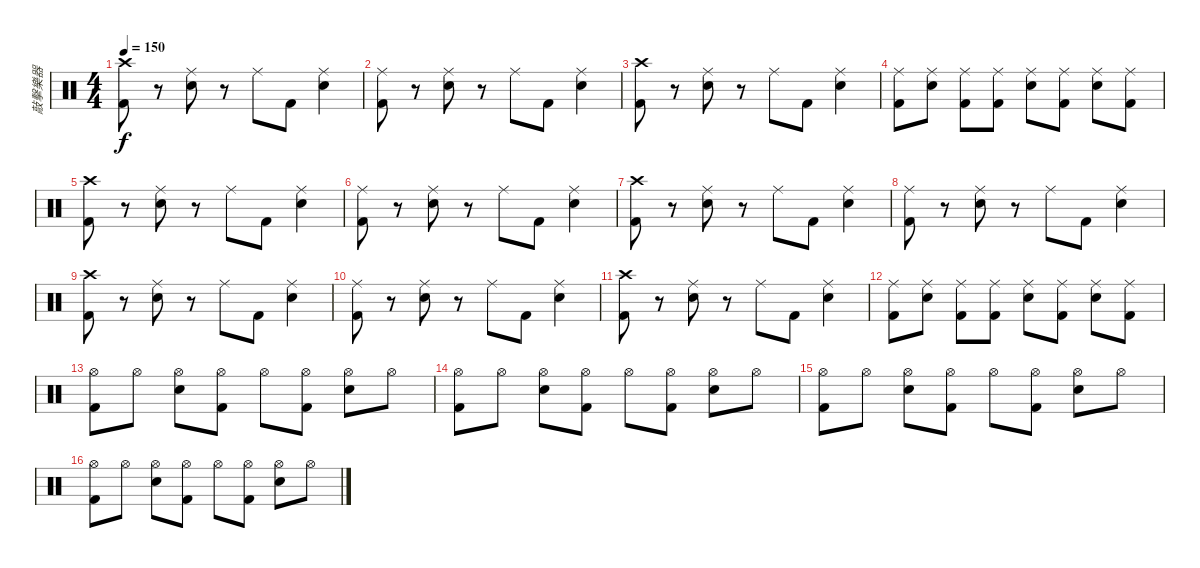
\track ("敲擊樂器" "敲擊樂器") {instrument percussion}
\staff {score}
\articulation defaults
\ts (4 4)
\tempo 150
\clef neutral
\ks c
("Crash high (hit)" "Kick (hit) 2").8{dy f} r.8 ("Ride (middle)" "Electric Snare (hit)").8 r.8 "Ride (middle)".8 "Kick (hit) 2".8 ("Ride (middle)" "Electric Snare (hit)").4 |
("Ride (middle)" "Kick (hit) 2").8 r.8 ("Ride (middle)" "Electric Snare (hit)").8 r.8 "Ride (middle)".8 "Kick (hit) 2".8 ("Ride (middle)" "Electric Snare (hit)").4 |
("Crash high (hit)" "Kick (hit) 2").8 r.8 ("Ride (middle)" "Electric Snare (hit)").8 r.8 "Ride (middle)".8 "Kick (hit) 2".8 ("Ride (middle)" "Electric Snare (hit)").4 |
("Ride (middle)" "Kick (hit) 2").8 ("Ride (middle)" "Electric Snare (hit)").8 ("Ride (middle)" "Kick (hit) 2").8 ("Ride (middle)" "Kick (hit) 2").8 ("Ride (middle)" "Electric Snare (hit)").8 ("Ride (middle)" "Kick (hit) 2").8 ("Ride (middle)" "Electric Snare (hit)").8 ("Ride (middle)" "Kick (hit) 2").8 |
("Crash high (hit)" "Kick (hit) 2").8 r.8 ("Ride (middle)" "Electric Snare (hit)").8 r.8 "Ride (middle)".8 "Kick (hit) 2".8 ("Ride (middle)" "Electric Snare (hit)").4 |
("Ride (middle)" "Kick (hit) 2").8 r.8 ("Ride (middle)" "Electric Snare (hit)").8 r.8 "Ride (middle)".8 "Kick (hit) 2".8 ("Ride (middle)" "Electric Snare (hit)").4 |
("Crash high (hit)" "Kick (hit) 2").8 r.8 ("Ride (middle)" "Electric Snare (hit)").8 r.8 "Ride (middle)".8 "Kick (hit) 2".8 ("Ride (middle)" "Electric Snare (hit)").4 |
("Ride (middle)" "Kick (hit) 2").8 r.8 ("Ride (middle)" "Electric Snare (hit)").8 r.8 "Ride (middle)".8 "Kick (hit) 2".8 ("Ride (middle)" "Electric Snare (hit)").4 |
("Crash high (hit)" "Kick (hit) 2").8 r.8 ("Ride (middle)" "Electric Snare (hit)").8 r.8 "Ride (middle)".8 "Kick (hit) 2".8 ("Ride (middle)" "Electric Snare (hit)").4 |
("Ride (middle)" "Kick (hit) 2").8 r.8 ("Ride (middle)" "Electric Snare (hit)").8 r.8 "Ride (middle)".8 "Kick (hit) 2".8 ("Ride (middle)" "Electric Snare (hit)").4 |
("Crash high (hit)" "Kick (hit) 2").8 r.8 ("Ride (middle)" "Electric Snare (hit)").8 r.8 "Ride (middle)".8 "Kick (hit) 2".8 ("Ride (middle)" "Electric Snare (hit)").4 |
("Ride (middle)" "Kick (hit) 2").8 ("Ride (middle)" "Electric Snare (hit)").8 ("Ride (middle)" "Kick (hit) 2").8 ("Ride (middle)" "Kick (hit) 2").8 ("Ride (middle)" "Electric Snare (hit)").8 ("Ride (middle)" "Kick (hit) 2").8 ("Ride (middle)" "Electric Snare (hit)").8 ("Ride (middle)" "Kick (hit) 2").8 |
("Hi-Hat (open)" "Kick (hit) 2").8 "Hi-Hat (open)".8 ("Hi-Hat (open)" "Electric Snare (hit)").8 ("Hi-Hat (open)" "Kick (hit) 2").8 "Hi-Hat (open)".8 ("Hi-Hat (open)" "Kick (hit) 2").8 ("Hi-Hat (open)" "Electric Snare (hit)").8 "Hi-Hat (open)".8 |
("Hi-Hat (open)" "Kick (hit) 2").8 "Hi-Hat (open)".8 ("Hi-Hat (open)" "Electric Snare (hit)").8 ("Hi-Hat (open)" "Kick (hit) 2").8 "Hi-Hat (open)".8 ("Hi-Hat (open)" "Kick (hit) 2").8 ("Hi-Hat (open)" "Electric Snare (hit)").8 "Hi-Hat (open)".8 |
("Hi-Hat (open)" "Kick (hit) 2").8 "Hi-Hat (open)".8 ("Hi-Hat (open)" "Electric Snare (hit)").8 ("Hi-Hat (open)" "Kick (hit) 2").8 "Hi-Hat (open)".8 ("Hi-Hat (open)" "Kick (hit) 2").8 ("Hi-Hat (open)" "Electric Snare (hit)").8 "Hi-Hat (open)".8 |
("Hi-Hat (open)" "Kick (hit) 2").8 "Hi-Hat (open)".8 ("Hi-Hat (open)" "Electric Snare (hit)").8 ("Hi-Hat (open)" "Kick (hit) 2").8 "Hi-Hat (open)".8 ("Hi-Hat (open)" "Kick (hit) 2").8 ("Hi-Hat (open)" "Electric Snare (hit)").8 "Hi-Hat (open)".8
